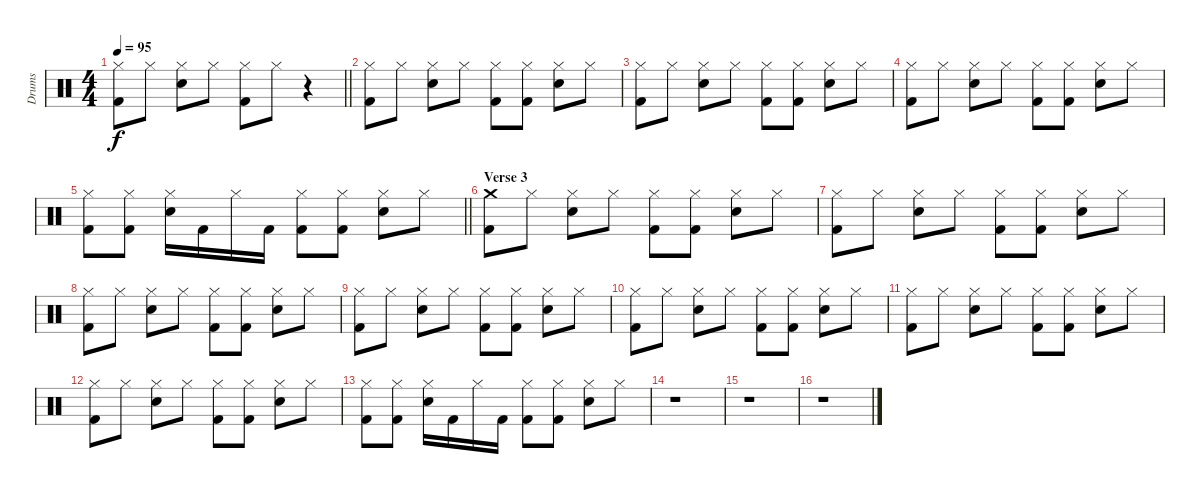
\track ("Drums" "Drums") {instrument percussion}
\staff
\articulation defaults
\ts (4 4)
\tempo 95
\clef neutral
\barLineRight lightlight
\ks c
("Hi-Hat (closed)" "Kick (hit) 2").8{dy f} "Hi-Hat (closed)".8 ("Hi-Hat (closed)" "Electric Snare (hit)").8 "Hi-Hat (closed)".8 ("Hi-Hat (closed)" "Kick (hit) 2").8 "Hi-Hat (closed)".8 r.4 |
("Hi-Hat (closed)" "Kick (hit) 2").8 "Hi-Hat (closed)".8 ("Hi-Hat (closed)" "Electric Snare (hit)").8 "Hi-Hat (closed)".8 ("Hi-Hat (closed)" "Kick (hit) 2").8 ("Hi-Hat (closed)" "Kick (hit) 2").8 ("Hi-Hat (closed)" "Electric Snare (hit)").8 "Hi-Hat (closed)".8 |
("Hi-Hat (closed)" "Kick (hit) 2").8 "Hi-Hat (closed)".8 ("Hi-Hat (closed)" "Electric Snare (hit)").8 "Hi-Hat (closed)".8 ("Hi-Hat (closed)" "Kick (hit) 2").8 ("Hi-Hat (closed)" "Kick (hit) 2").8 ("Hi-Hat (closed)" "Electric Snare (hit)").8 "Hi-Hat (closed)".8 |
("Hi-Hat (closed)" "Kick (hit) 2").8 "Hi-Hat (closed)".8 ("Hi-Hat (closed)" "Electric Snare (hit)").8 "Hi-Hat (closed)".8 ("Hi-Hat (closed)" "Kick (hit) 2").8 ("Hi-Hat (closed)" "Kick (hit) 2").8 ("Hi-Hat (closed)" "Electric Snare (hit)").8 "Hi-Hat (closed)".8 |
\barLineRight lightlight
("Hi-Hat (closed)" "Kick (hit) 2").8 ("Hi-Hat (closed)" "Kick (hit) 2").8 ("Hi-Hat (closed)" "Electric Snare (hit)").16 "Kick (hit) 2".16 "Hi-Hat (closed)".16 "Kick (hit) 2".16 ("Hi-Hat (closed)" "Kick (hit) 2").8 ("Hi-Hat (closed)" "Kick (hit) 2").8 ("Hi-Hat (closed)" "Electric Snare (hit)").8 "Hi-Hat (closed)".8 |
\section ("" "Verse 3")
("Crash medium (hit)" "Kick (hit) 2").8 "Hi-Hat (closed)".8 ("Hi-Hat (closed)" "Electric Snare (hit)").8 "Hi-Hat (closed)".8 ("Hi-Hat (closed)" "Kick (hit) 2").8 ("Hi-Hat (closed)" "Kick (hit) 2").8 ("Hi-Hat (closed)" "Electric Snare (hit)").8 "Hi-Hat (closed)".8 |
("Hi-Hat (closed)" "Kick (hit) 2").8 "Hi-Hat (closed)".8 ("Hi-Hat (closed)" "Electric Snare (hit)").8 "Hi-Hat (closed)".8 ("Hi-Hat (closed)" "Kick (hit) 2").8 ("Hi-Hat (closed)" "Kick (hit) 2").8 ("Hi-Hat (closed)" "Electric Snare (hit)").8 "Hi-Hat (closed)".8 |
("Hi-Hat (closed)" "Kick (hit) 2").8 "Hi-Hat (closed)".8 ("Hi-Hat (closed)" "Electric Snare (hit)").8 "Hi-Hat (closed)".8 ("Hi-Hat (closed)" "Kick (hit) 2").8 ("Hi-Hat (closed)" "Kick (hit) 2").8 ("Hi-Hat (closed)" "Electric Snare (hit)").8 "Hi-Hat (closed)".8 |
("Hi-Hat (closed)" "Kick (hit) 2").8 "Hi-Hat (closed)".8 ("Hi-Hat (closed)" "Electric Snare (hit)").8 "Hi-Hat (closed)".8 ("Hi-Hat (closed)" "Kick (hit) 2").8 ("Hi-Hat (closed)" "Kick (hit) 2").8 ("Hi-Hat (closed)" "Electric Snare (hit)").8 "Hi-Hat (closed)".8 |
("Hi-Hat (closed)" "Kick (hit) 2").8 "Hi-Hat (closed)".8 ("Hi-Hat (closed)" "Electric Snare (hit)").8 "Hi-Hat (closed)".8 ("Hi-Hat (closed)" "Kick (hit) 2").8 ("Hi-Hat (closed)" "Kick (hit) 2").8 ("Hi-Hat (closed)" "Electric Snare (hit)").8 "Hi-Hat (closed)".8 |
("Hi-Hat (closed)" "Kick (hit) 2").8 "Hi-Hat (closed)".8 ("Hi-Hat (closed)" "Electric Snare (hit)").8 "Hi-Hat (closed)".8 ("Hi-Hat (closed)" "Kick (hit) 2").8 ("Hi-Hat (closed)" "Kick (hit) 2").8 ("Hi-Hat (closed)" "Electric Snare (hit)").8 "Hi-Hat (closed)".8 |
("Hi-Hat (closed)" "Kick (hit) 2").8 "Hi-Hat (closed)".8 ("Hi-Hat (closed)" "Electric Snare (hit)").8 "Hi-Hat (closed)".8 ("Hi-Hat (closed)" "Kick (hit) 2").8 ("Hi-Hat (closed)" "Kick (hit) 2").8 ("Hi-Hat (closed)" "Electric Snare (hit)").8 "Hi-Hat (closed)".8 |
("Hi-Hat (closed)" "Kick (hit) 2").8 ("Hi-Hat (closed)" "Kick (hit) 2").8 ("Hi-Hat (closed)" "Electric Snare (hit)").16 "Kick (hit) 2".16 "Hi-Hat (closed)".16 "Kick (hit) 2".16 ("Hi-Hat (closed)" "Kick (hit) 2").8 ("Hi-Hat (closed)" "Kick (hit) 2").8 ("Hi-Hat (closed)" "Electric Snare (hit)").8 "Hi-Hat (closed)".8 |
r.1 |
r.1 |
r.1
